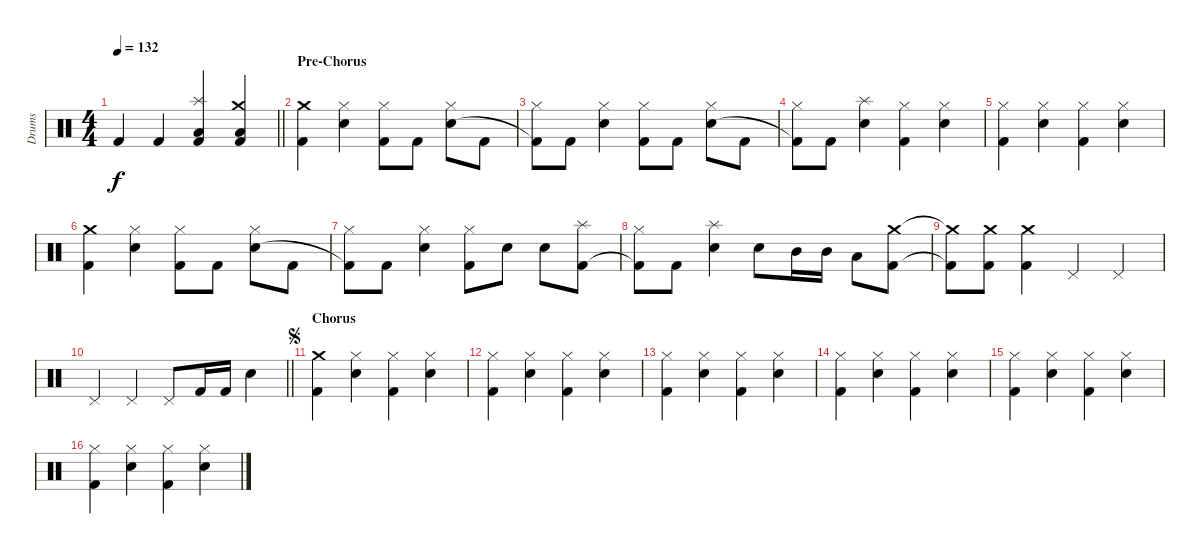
\track ("Drums" "Drums") {instrument percussion}
\staff {score}
\articulation defaults
\ts (4 4)
\tempo 132
\clef neutral
\barLineRight lightlight
\ks c "Kick (hit) 2".4{dy f} "Kick (hit) 2".4
("Splash (hit)" "Low Tom (hit)" "Kick (hit) 2").4 ("Crash medium (hit)" "Low Floor Tom (hit)" "Kick (hit) 2").4 |
\section ("" "Pre-Chorus")
("Crash medium (hit)" "Kick (hit) 2").4 ("Hi-Hat (closed)" "Snare (hit) 2").4 ("Hi-Hat (closed)" "Kick (hit) 2").8 "Kick (hit) 2".8 ("Hi-Hat (closed)" "Snare (hit) 2").8 "Kick (hit) 2".8 |
("Hi-Hat (closed)" "Kick (hit) 2"{t}).8 "Kick (hit) 2".8 ("Hi-Hat (closed)" "Snare (hit) 2").4 ("Hi-Hat (closed)" "Kick (hit) 2").8 "Kick (hit) 2".8 ("Hi-Hat (closed)" "Snare (hit) 2").8 "Kick (hit) 2".8 |
("Hi-Hat (closed)" "Kick (hit) 2"{t}).8 "Kick (hit) 2".8 ("Splash (hit)" "Snare (hit) 2").4 ("Hi-Hat (closed)" "Kick (hit) 2").4 ("Hi-Hat (closed)" "Snare (hit) 2").4 |
("Hi-Hat (closed)" "Kick (hit) 2").4 ("Hi-Hat (closed)" "Snare (hit) 2").4 ("Hi-Hat (closed)" "Kick (hit) 2").4 ("Hi-Hat (closed)" "Snare (hit) 2").4 |
("Crash medium (hit)" "Kick (hit) 2").4 ("Hi-Hat (closed)" "Snare (hit) 2").4 ("Hi-Hat (closed)" "Kick (hit) 2").8 "Kick (hit) 2".8 ("Hi-Hat (closed)" "Snare (hit) 2").8 "Kick (hit) 2".8 |
("Hi-Hat (closed)" "Kick (hit) 2"{t}).8 "Kick (hit) 2".8 ("Hi-Hat (closed)" "Snare (hit) 2").4 ("Hi-Hat (closed)" "Kick (hit) 2").8 "Snare (hit) 2".8 "Snare (hit) 2".8 ("Splash (hit)" "Kick (hit) 2").8 |
("Hi-Hat (closed)" "Kick (hit) 2"{t}).8 "Kick (hit) 2".8 ("Splash (hit)" "Snare (hit) 2").4 "Snare (hit) 2".8 "Mid Tom (hit)".16 "Mid Tom (hit)".16 "Low Tom (hit)".8 ("Crash medium (hit)" "Kick (hit) 2").8 |
("Crash medium (hit)"{t} "Kick (hit) 2"{t}).8 ("Crash medium (hit)" "Kick (hit) 2").8 ("Crash medium (hit)" "Kick (hit) 2").4 "Pedal Hi-Hat (hit)".4 "Pedal Hi-Hat (hit)".4 |
\barLineRight lightlight "Pedal Hi-Hat (hit)".4 "Pedal Hi-Hat (hit)".4 "Pedal Hi-Hat (hit)".8 "Kick (hit) 2".16 "Kick (hit) 2".16 "Snare (hit) 2".4
|
\section ("" "Chorus")
\jump segno
("Crash medium (hit)" "Kick (hit) 2").4 ("Hi-Hat (closed)" "Snare (hit) 2").4 ("Hi-Hat (closed)" "Kick (hit) 2").4 ("Hi-Hat (closed)" "Snare (hit) 2").4 |
("Hi-Hat (closed)" "Kick (hit) 2").4 ("Hi-Hat (closed)" "Snare (hit) 2").4 ("Hi-Hat (closed)" "Kick (hit) 2").4 ("Hi-Hat (closed)" "Snare (hit) 2").4 |
("Hi-Hat (closed)" "Kick (hit) 2").4 ("Hi-Hat (closed)" "Snare (hit) 2").4 ("Hi-Hat (closed)" "Kick (hit) 2").4 ("Hi-Hat (closed)" "Snare (hit) 2").4 |
("Hi-Hat (closed)" "Kick (hit) 2").4 ("Hi-Hat (closed)" "Snare (hit) 2").4 ("Hi-Hat (closed)" "Kick (hit) 2").4 ("Hi-Hat (closed)" "Snare (hit) 2").4 |
("Hi-Hat (closed)" "Kick (hit) 2").4 ("Hi-Hat (closed)" "Snare (hit) 2").4 ("Hi-Hat (closed)" "Kick (hit) 2").4 ("Hi-Hat (closed)" "Snare (hit) 2").4 |
("Hi-Hat (closed)" "Kick (hit) 2").4 ("Hi-Hat (closed)" "Snare (hit) 2").4 ("Hi-Hat (closed)" "Kick (hit) 2").4 ("Hi-Hat (closed)" "Snare (hit) 2").4
